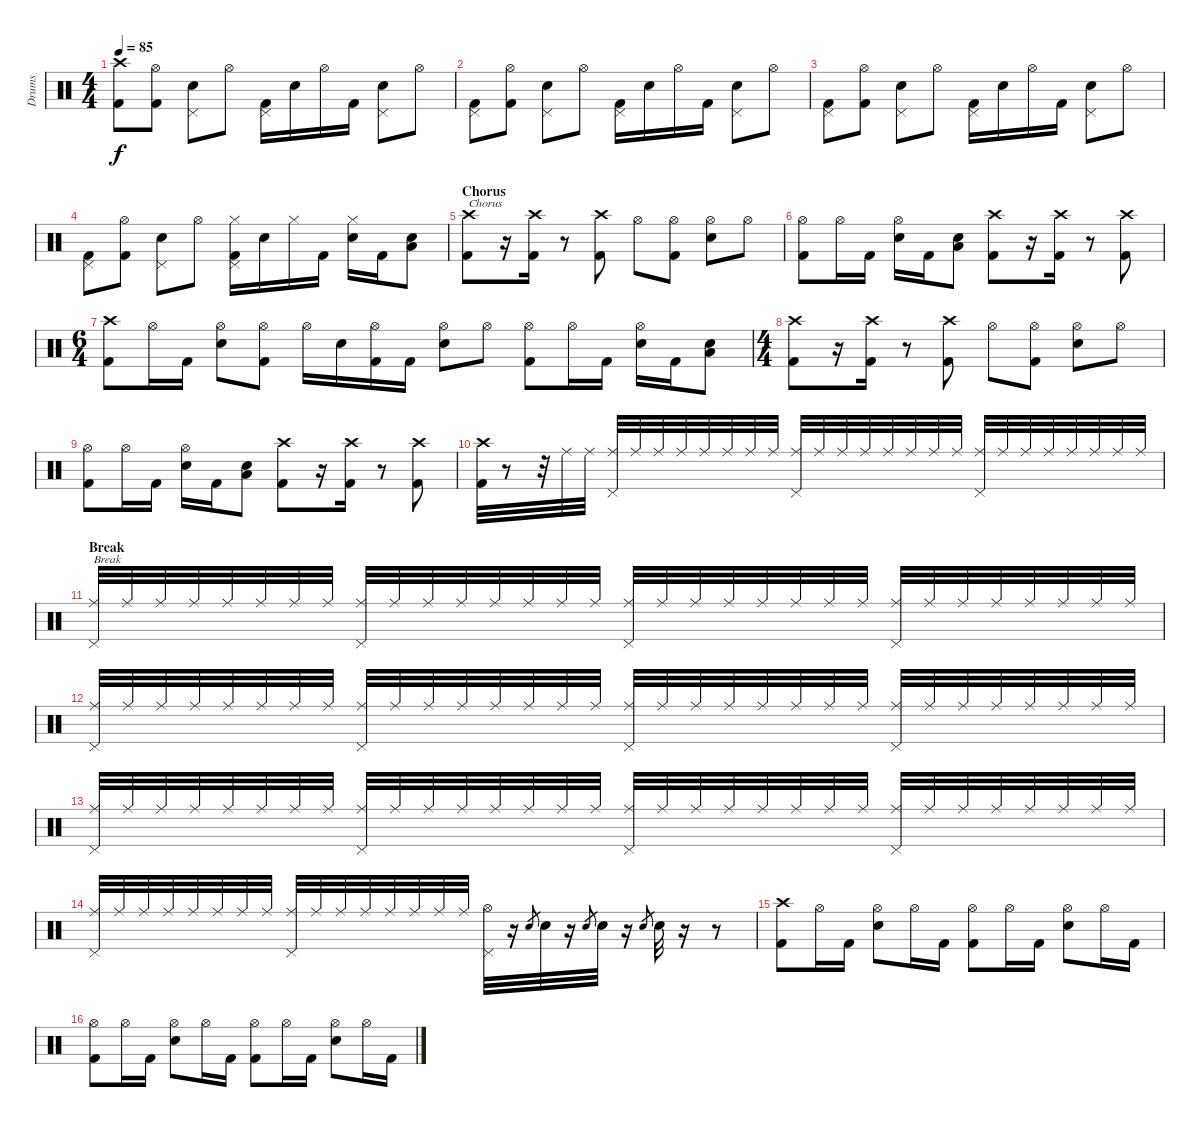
\track ("Drums" "Drums") {instrument percussion}
\staff {score}
\articulation defaults
\ts (4 4)
\tempo 85
\clef neutral
\ks c
("Crash high (hit)" "Kick (hit) 2").8{dy f} ("Hi-Hat (open)" "Kick (hit) 2").8 ("Electric Snare (hit)" "Pedal Hi-Hat (hit)").8 "Hi-Hat (open)".8 ("Pedal Hi-Hat (hit)" "Kick (hit) 2").16 "Electric Snare (hit)".16 "Hi-Hat (open)".16 "Kick (hit) 2".16 ("Electric Snare (hit)" "Pedal Hi-Hat (hit)").8 "Hi-Hat (open)".8 |
("Pedal Hi-Hat (hit)" "Kick (hit) 2").8 ("Hi-Hat (open)" "Kick (hit) 2").8 ("Electric Snare (hit)" "Pedal Hi-Hat (hit)").8 "Hi-Hat (open)".8 ("Pedal Hi-Hat (hit)" "Kick (hit) 2").16 "Electric Snare (hit)".16 "Hi-Hat (open)".16 "Kick (hit) 2".16 ("Electric Snare (hit)" "Pedal Hi-Hat (hit)").8 "Hi-Hat (open)".8 |
("Pedal Hi-Hat (hit)" "Kick (hit) 2").8 ("Hi-Hat (open)" "Kick (hit) 2").8 ("Electric Snare (hit)" "Pedal Hi-Hat (hit)").8 "Hi-Hat (open)".8 ("Pedal Hi-Hat (hit)" "Kick (hit) 2").16 "Electric Snare (hit)".16 "Hi-Hat (open)".16 "Kick (hit) 2".16 ("Electric Snare (hit)" "Pedal Hi-Hat (hit)").8 "Hi-Hat (open)".8 |
("Pedal Hi-Hat (hit)" "Kick (hit) 2").8 ("Hi-Hat (open)" "Kick (hit) 2").8 ("Electric Snare (hit)" "Pedal Hi-Hat (hit)").8 "Hi-Hat (open)".8 ("Hi-Hat (closed)" "Pedal Hi-Hat (hit)" "Kick (hit) 2").16 "Electric Snare (hit)".16 "Hi-Hat (closed)".16 "Kick (hit) 2".16 ("Hi-Hat (closed)" "Electric Snare (hit)").16 "Kick (hit) 2".16 ("Electric Snare (hit)" "Low Floor Tom (hit)").8 |
\section ("" "Chorus")
("Crash high (hit)" "Kick (hit) 2").8{txt "Chorus"} r.16 ("Crash high (hit)" "Kick (hit) 2").16 r.8 ("Crash high (hit)" "Kick (hit) 2").8 "Hi-Hat (open)".8 ("Hi-Hat (open)" "Kick (hit) 2").8 ("Hi-Hat (open)" "Electric Snare (hit)").8 "Hi-Hat (open)".8 |
("Hi-Hat (open)" "Kick (hit) 2").8 "Hi-Hat (open)".16 "Kick (hit) 2".16 ("Hi-Hat (open)" "Electric Snare (hit)").16 "Kick (hit) 2".16 ("Electric Snare (hit)" "Low Floor Tom (hit)").8 ("Crash high (hit)" "Kick (hit) 2").8 r.16 ("Crash high (hit)" "Kick (hit) 2").16 r.8 ("Crash high (hit)" "Kick (hit) 2").8 |
\ts (6 4)
("Crash high (hit)" "Kick (hit) 2").8 "Hi-Hat (open)".16 "Kick (hit) 2".16 ("Hi-Hat (open)" "Electric Snare (hit)").8 ("Hi-Hat (open)" "Kick (hit) 2").8 "Hi-Hat (open)".16 "Electric Snare (hit)".16 ("Hi-Hat (open)" "Kick (hit) 2").16 "Kick (hit) 2".16 ("Hi-Hat (open)" "Electric Snare (hit)").8 "Hi-Hat (open)".8 ("Hi-Hat (open)" "Kick (hit) 2").8 "Hi-Hat (open)".16 "Kick (hit) 2".16 ("Hi-Hat (open)" "Electric Snare (hit)").16 "Kick (hit) 2".16 ("Electric Snare (hit)" "Low Floor Tom (hit)").8 |
\ts (4 4)
("Crash high (hit)" "Kick (hit) 2").8 r.16 ("Crash high (hit)" "Kick (hit) 2").16 r.8 ("Crash high (hit)" "Kick (hit) 2").8 "Hi-Hat (open)".8 ("Hi-Hat (open)" "Kick (hit) 2").8 ("Hi-Hat (open)" "Electric Snare (hit)").8 "Hi-Hat (open)".8 |
("Hi-Hat (open)" "Kick (hit) 2").8 "Hi-Hat (open)".16 "Kick (hit) 2".16 ("Hi-Hat (open)" "Electric Snare (hit)").16 "Kick (hit) 2".16 ("Electric Snare (hit)" "Low Floor Tom (hit)").8 ("Crash high (hit)" "Kick (hit) 2").8 r.16 ("Crash high (hit)" "Kick (hit) 2").16 r.8 ("Crash high (hit)" "Kick (hit) 2").8 |
("Crash high (hit)" "Kick (hit) 2").32 r.8 r.32 "Ride (middle)".32 "Ride (middle)".32 ("Ride (middle)" "Pedal Hi-Hat (hit)").32 "Ride (middle)".32 "Ride (middle)".32 "Ride (middle)".32 "Ride (middle)".32 "Ride (middle)".32 "Ride (middle)".32 "Ride (middle)".32 ("Ride (middle)" "Pedal Hi-Hat (hit)").32 "Ride (middle)".32 "Ride (middle)".32 "Ride (middle)".32 "Ride (middle)".32 "Ride (middle)".32 "Ride (middle)".32 "Ride (middle)".32 ("Ride (middle)" "Pedal Hi-Hat (hit)").32 "Ride (middle)".32 "Ride (middle)".32 "Ride (middle)".32 "Ride (middle)".32 "Ride (middle)".32 "Ride (middle)".32 "Ride (middle)".32 |
\section ("" "Break")
("Ride (middle)" "Pedal Hi-Hat (hit)").32{txt "Break"} "Ride (middle)".32 "Ride (middle)".32 "Ride (middle)".32 "Ride (middle)".32 "Ride (middle)".32 "Ride (middle)".32 "Ride (middle)".32 ("Ride (middle)" "Pedal Hi-Hat (hit)").32 "Ride (middle)".32 "Ride (middle)".32 "Ride (middle)".32 "Ride (middle)".32 "Ride (middle)".32 "Ride (middle)".32 "Ride (middle)".32 ("Ride (middle)" "Pedal Hi-Hat (hit)").32 "Ride (middle)".32 "Ride (middle)".32 "Ride (middle)".32 "Ride (middle)".32 "Ride (middle)".32 "Ride (middle)".32 "Ride (middle)".32 ("Ride (middle)" "Pedal Hi-Hat (hit)").32 "Ride (middle)".32 "Ride (middle)".32 "Ride (middle)".32 "Ride (middle)".32 "Ride (middle)".32 "Ride (middle)".32 "Ride (middle)".32 |
("Ride (middle)" "Pedal Hi-Hat (hit)").32 "Ride (middle)".32 "Ride (middle)".32 "Ride (middle)".32 "Ride (middle)".32 "Ride (middle)".32 "Ride (middle)".32 "Ride (middle)".32 ("Ride (middle)" "Pedal Hi-Hat (hit)").32 "Ride (middle)".32 "Ride (middle)".32 "Ride (middle)".32 "Ride (middle)".32 "Ride (middle)".32 "Ride (middle)".32 "Ride (middle)".32 ("Ride (middle)" "Pedal Hi-Hat (hit)").32 "Ride (middle)".32 "Ride (middle)".32 "Ride (middle)".32 "Ride (middle)".32 "Ride (middle)".32 "Ride (middle)".32 "Ride (middle)".32 ("Ride (middle)" "Pedal Hi-Hat (hit)").32 "Ride (middle)".32 "Ride (middle)".32 "Ride (middle)".32 "Ride (middle)".32 "Ride (middle)".32 "Ride (middle)".32 "Ride (middle)".32 |
("Ride (middle)" "Pedal Hi-Hat (hit)").32 "Ride (middle)".32 "Ride (middle)".32 "Ride (middle)".32 "Ride (middle)".32 "Ride (middle)".32 "Ride (middle)".32 "Ride (middle)".32 ("Ride (middle)" "Pedal Hi-Hat (hit)").32 "Ride (middle)".32 "Ride (middle)".32 "Ride (middle)".32 "Ride (middle)".32 "Ride (middle)".32 "Ride (middle)".32 "Ride (middle)".32 ("Ride (middle)" "Pedal Hi-Hat (hit)").32 "Ride (middle)".32 "Ride (middle)".32 "Ride (middle)".32 "Ride (middle)".32 "Ride (middle)".32 "Ride (middle)".32 "Ride (middle)".32 ("Ride (middle)" "Pedal Hi-Hat (hit)").32 "Ride (middle)".32 "Ride (middle)".32 "Ride (middle)".32 "Ride (middle)".32 "Ride (middle)".32 "Ride (middle)".32 "Ride (middle)".32 |
("Ride (middle)" "Pedal Hi-Hat (hit)").32 "Ride (middle)".32 "Ride (middle)".32 "Ride (middle)".32 "Ride (middle)".32 "Ride (middle)".32 "Ride (middle)".32 "Ride (middle)".32 ("Ride (middle)" "Pedal Hi-Hat (hit)").32 "Ride (middle)".32 "Ride (middle)".32 "Ride (middle)".32 "Ride (middle)".32 "Ride (middle)".32 "Ride (middle)".32 "Ride (middle)".32 ("Hi-Hat (open)" "Pedal Hi-Hat (hit)").32 r.16 "Electric Snare (hit)".8{gr} "Electric Snare (hit)".32 r.16 "Electric Snare (hit)".8{gr} "Electric Snare (hit)".32 r.16 "Electric Snare (hit)".8{gr} "Electric Snare (hit)".32 r.16 r.8 |
("Crash high (hit)" "Kick (hit) 2").8 "Hi-Hat (open)".16 "Kick (hit) 2".16 ("Hi-Hat (open)" "Electric Snare (hit)").8 "Hi-Hat (open)".16 "Kick (hit) 2".16 ("Hi-Hat (open)" "Kick (hit) 2").8 "Hi-Hat (open)".16 "Kick (hit) 2".16 ("Hi-Hat (open)" "Electric Snare (hit)").8 "Hi-Hat (open)".16 "Kick (hit) 2".16 |
("Hi-Hat (open)" "Kick (hit) 2").8 "Hi-Hat (open)".16 "Kick (hit) 2".16 ("Hi-Hat (open)" "Electric Snare (hit)").8 "Hi-Hat (open)".16 "Kick (hit) 2".16 ("Hi-Hat (open)" "Kick (hit) 2").8 "Hi-Hat (open)".16 "Kick (hit) 2".16 ("Hi-Hat (open)" "Electric Snare (hit)").8 "Hi-Hat (open)".16 "Kick (hit) 2".16
